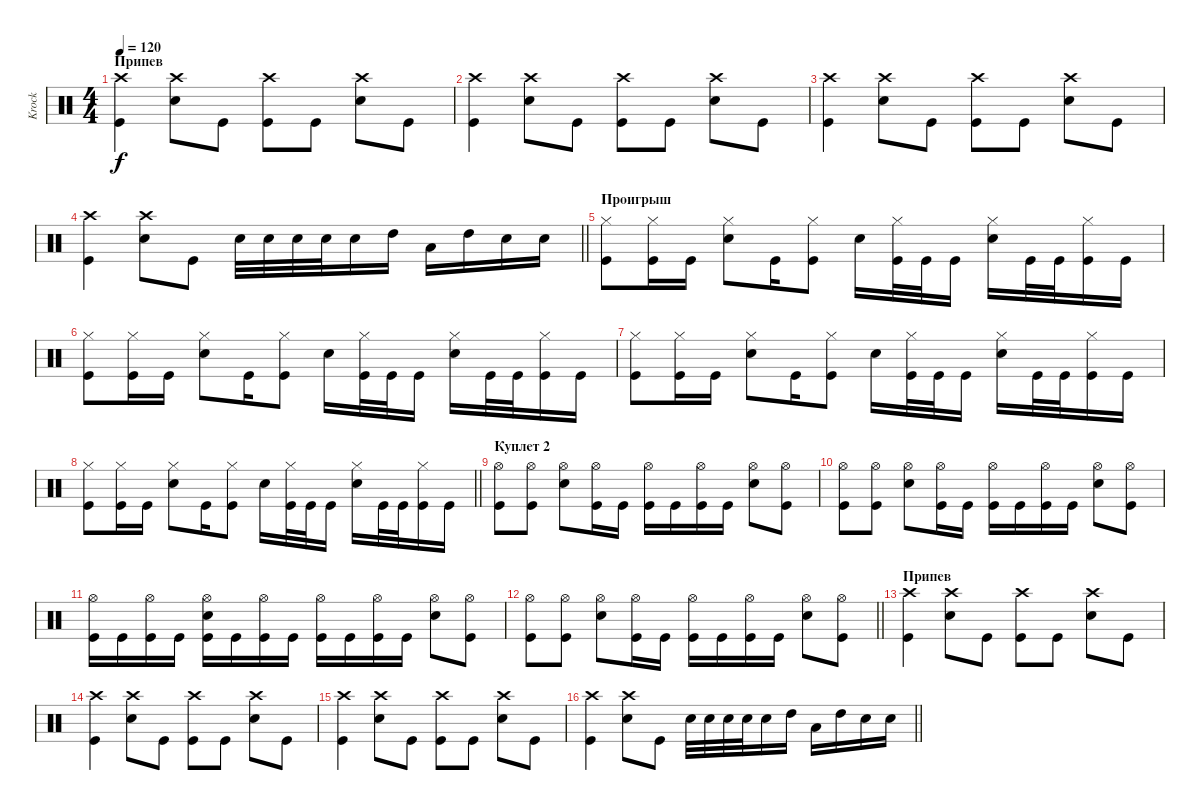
\track ("Krock" "Krock") {instrument percussion}
\staff {score}
\articulation defaults
\ts (4 4)
\section ("" "Припев")
\tempo 120
\clef neutral
\ks c
("Crash high (hit)" "Kick (hit)").4{dy f} ("Crash high (hit)" "Snare (hit) 2").8 "Kick (hit)".8 ("Crash high (hit)" "Kick (hit)").8 "Kick (hit)".8 ("Crash high (hit)" "Snare (hit) 2").8 "Kick (hit)".8 |
("Crash high (hit)" "Kick (hit)").4 ("Crash high (hit)" "Snare (hit) 2").8 "Kick (hit)".8 ("Crash high (hit)" "Kick (hit)").8 "Kick (hit)".8 ("Crash high (hit)" "Snare (hit) 2").8 "Kick (hit)".8 |
("Crash high (hit)" "Kick (hit)").4 ("Crash high (hit)" "Snare (hit) 2").8 "Kick (hit)".8 ("Crash high (hit)" "Kick (hit)").8 "Kick (hit)".8 ("Crash high (hit)" "Snare (hit) 2").8 "Kick (hit)".8 |
\barLineRight lightlight
("Crash high (hit)" "Kick (hit)").4 ("Crash high (hit)" "Snare (hit) 2").8 "Kick (hit)".8 "Snare (hit) 2".32 "Snare (hit) 2".32 "Snare (hit) 2".32 "Snare (hit) 2".32 "Snare (hit) 2".16 "High Tom (hit)".16 "Low Tom (hit)".16 "High Tom (hit)".16 "Snare (hit) 2".16 "Snare (hit) 2".16 |
\section ("" "Проигрыш")
("Hi-Hat (closed)" "Kick (hit)").8 ("Hi-Hat (closed)" "Kick (hit)").16 "Kick (hit)".16 ("Hi-Hat (closed)" "Snare (hit) 2").8 "Kick (hit)".16 ("Hi-Hat (closed)" "Kick (hit)").8 "Snare (hit) 2".16 ("Hi-Hat (closed)" "Kick (hit)").32 "Kick (hit)".32 "Kick (hit)".16 ("Hi-Hat (closed)" "Snare (hit) 2").16 "Kick (hit)".32 "Kick (hit)".32 ("Hi-Hat (closed)" "Kick (hit)").16 "Kick (hit)".16 |
("Hi-Hat (closed)" "Kick (hit)").8 ("Hi-Hat (closed)" "Kick (hit)").16 "Kick (hit)".16 ("Hi-Hat (closed)" "Snare (hit) 2").8 "Kick (hit)".16 ("Hi-Hat (closed)" "Kick (hit)").8 "Snare (hit) 2".16 ("Hi-Hat (closed)" "Kick (hit)").32 "Kick (hit)".32 "Kick (hit)".16 ("Hi-Hat (closed)" "Snare (hit) 2").16 "Kick (hit)".32 "Kick (hit)".32 ("Hi-Hat (closed)" "Kick (hit)").16 "Kick (hit)".16 |
("Hi-Hat (closed)" "Kick (hit)").8 ("Hi-Hat (closed)" "Kick (hit)").16 "Kick (hit)".16 ("Hi-Hat (closed)" "Snare (hit) 2").8 "Kick (hit)".16 ("Hi-Hat (closed)" "Kick (hit)").8 "Snare (hit) 2".16 ("Hi-Hat (closed)" "Kick (hit)").32 "Kick (hit)".32 "Kick (hit)".16 ("Hi-Hat (closed)" "Snare (hit) 2").16 "Kick (hit)".32 "Kick (hit)".32 ("Hi-Hat (closed)" "Kick (hit)").16 "Kick (hit)".16 |
\barLineRight lightlight
("Hi-Hat (closed)" "Kick (hit)").8 ("Hi-Hat (closed)" "Kick (hit)").16 "Kick (hit)".16 ("Hi-Hat (closed)" "Snare (hit) 2").8 "Kick (hit)".16 ("Hi-Hat (closed)" "Kick (hit)").8 "Snare (hit) 2".16 ("Hi-Hat (closed)" "Kick (hit)").32 "Kick (hit)".32 "Kick (hit)".16 ("Hi-Hat (closed)" "Snare (hit) 2").16 "Kick (hit)".32 "Kick (hit)".32 ("Hi-Hat (closed)" "Kick (hit)").16 "Kick (hit)".16 |
\section ("" "Куплет 2")
("Hi-Hat (open)" "Kick (hit)").8 ("Hi-Hat (open)" "Kick (hit)").8 ("Hi-Hat (open)" "Snare (hit) 2").8 ("Hi-Hat (open)" "Kick (hit)").16 "Kick (hit)".16 ("Hi-Hat (open)" "Kick (hit)").16 "Kick (hit)".16 ("Hi-Hat (open)" "Kick (hit)").16 "Kick (hit)".16 ("Hi-Hat (open)" "Snare (hit) 2").8 ("Hi-Hat (open)" "Kick (hit)").8 |
("Hi-Hat (open)" "Kick (hit)").8 ("Hi-Hat (open)" "Kick (hit)").8 ("Hi-Hat (open)" "Snare (hit) 2").8 ("Hi-Hat (open)" "Kick (hit)").16 "Kick (hit)".16 ("Hi-Hat (open)" "Kick (hit)").16 "Kick (hit)".16 ("Hi-Hat (open)" "Kick (hit)").16 "Kick (hit)".16 ("Hi-Hat (open)" "Snare (hit) 2").8 ("Hi-Hat (open)" "Kick (hit)").8 |
("Hi-Hat (open)" "Kick (hit)").16 "Kick (hit)".16 ("Hi-Hat (open)" "Kick (hit)").16 "Kick (hit)".16 ("Hi-Hat (open)" "Snare (hit) 2" "Kick (hit)").16 "Kick (hit)".16 ("Hi-Hat (open)" "Kick (hit)").16 "Kick (hit)".16 ("Hi-Hat (open)" "Kick (hit)").16 "Kick (hit)".16 ("Hi-Hat (open)" "Kick (hit)").16 "Kick (hit)".16 ("Hi-Hat (open)" "Snare (hit) 2").8 ("Hi-Hat (open)" "Kick (hit)").8 |
\barLineRight lightlight
("Hi-Hat (open)" "Kick (hit)").8 ("Hi-Hat (open)" "Kick (hit)").8 ("Hi-Hat (open)" "Snare (hit) 2").8 ("Hi-Hat (open)" "Kick (hit)").16 "Kick (hit)".16 ("Hi-Hat (open)" "Kick (hit)").16 "Kick (hit)".16 ("Hi-Hat (open)" "Kick (hit)").16 "Kick (hit)".16 ("Hi-Hat (open)" "Snare (hit) 2").8 ("Hi-Hat (open)" "Kick (hit)").8 |
\section ("" "Припев")
("Crash high (hit)" "Kick (hit)").4 ("Crash high (hit)" "Snare (hit) 2").8 "Kick (hit)".8 ("Crash high (hit)" "Kick (hit)").8 "Kick (hit)".8 ("Crash high (hit)" "Snare (hit) 2").8 "Kick (hit)".8 |
("Crash high (hit)" "Kick (hit)").4 ("Crash high (hit)" "Snare (hit) 2").8 "Kick (hit)".8 ("Crash high (hit)" "Kick (hit)").8 "Kick (hit)".8 ("Crash high (hit)" "Snare (hit) 2").8 "Kick (hit)".8 |
("Crash high (hit)" "Kick (hit)").4 ("Crash high (hit)" "Snare (hit) 2").8 "Kick (hit)".8 ("Crash high (hit)" "Kick (hit)").8 "Kick (hit)".8 ("Crash high (hit)" "Snare (hit) 2").8 "Kick (hit)".8 |
\barLineRight lightlight
("Crash high (hit)" "Kick (hit)").4 ("Crash high (hit)" "Snare (hit) 2").8 "Kick (hit)".8 "Snare (hit) 2".32 "Snare (hit) 2".32 "Snare (hit) 2".32 "Snare (hit) 2".32 "Snare (hit) 2".16 "High Tom (hit)".16 "Low Tom (hit)".16 "High Tom (hit)".16 "Snare (hit) 2".16 "Snare (hit) 2".16
